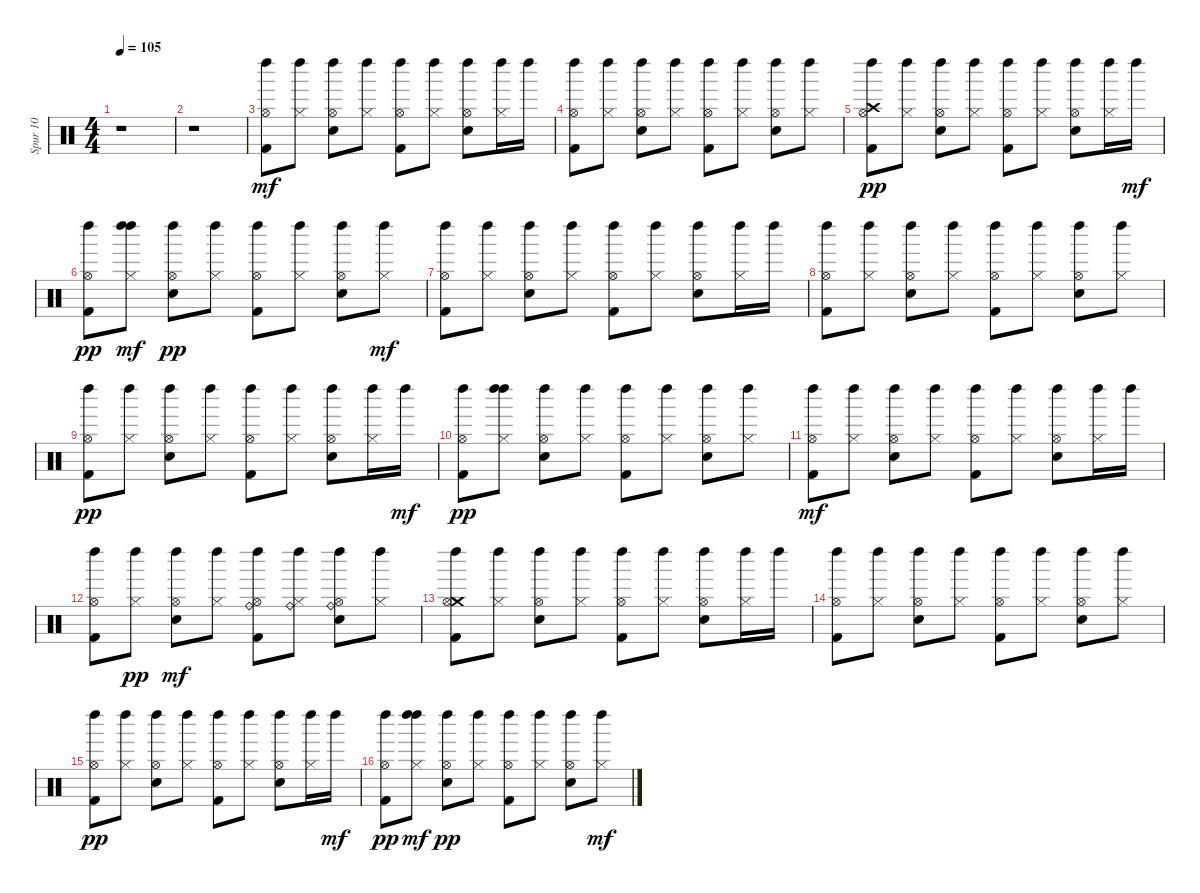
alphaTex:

\track ("Spur 10" "Spur 10") {instrument percussion}
\staff {score}
\articulation defaults
\ts (4 4)
\tempo 105
\clef neutral
\ks c
r.1{dy mf} |
r.1 |
("Hi-Hat (open)" "Kick (hit) 2" "Left Maraca (hit)").8 ("Hi-Hat (closed)" "Left Maraca (hit)").8 ("Hi-Hat (open)" "Snare (hit) 2" "Left Maraca (hit)").8 ("Hi-Hat (closed)" "Left Maraca (hit)").8 ("Hi-Hat (open)" "Kick (hit) 2" "Left Maraca (hit)").8 ("Hi-Hat (closed)" "Left Maraca (hit)").8 ("Hi-Hat (open)" "Snare (hit) 2" "Left Maraca (hit)").8 ("Hi-Hat (closed)" "Left Maraca (hit)").16 "Left Maraca (hit)".16 |
("Hi-Hat (open)" "Kick (hit) 2" "Left Maraca (hit)").8 ("Hi-Hat (closed)" "Left Maraca (hit)").8 ("Hi-Hat (open)" "Snare (hit) 2" "Left Maraca (hit)").8 ("Hi-Hat (closed)" "Left Maraca (hit)").8 ("Hi-Hat (open)" "Kick (hit) 2" "Left Maraca (hit)").8 ("Hi-Hat (closed)" "Left Maraca (hit)").8 ("Hi-Hat (open)" "Snare (hit) 2" "Left Maraca (hit)").8 ("Hi-Hat (closed)" "Left Maraca (hit)").8 |
("Left Maraca (hit)" "Crash high (hit)" "Hi-Hat (open)" "Kick (hit) 2").8{dy pp volume 16 balance 8} ("Left Maraca (hit)" "Hi-Hat (closed)").8 ("Left Maraca (hit)" "Hi-Hat (open)" "Snare (hit) 2").8 ("Left Maraca (hit)" "Hi-Hat (closed)").8 ("Left Maraca (hit)" "Hi-Hat (open)" "Kick (hit) 2").8 ("Left Maraca (hit)" "Hi-Hat (closed)").8 ("Left Maraca (hit)" "Hi-Hat (open)" "Snare (hit) 2").8 ("Left Maraca (hit)" "Hi-Hat (closed)").16 "Left Maraca (hit)".16{dy mf} |
("Left Maraca (hit)" "Hi-Hat (open)" "Kick (hit) 2").8{dy pp} ("Left Maraca (hit)" "Hi-Hat (closed)" "Left Maraca (hit)").8{dy mf} ("Left Maraca (hit)" "Hi-Hat (open)" "Snare (hit) 2").8{dy pp} ("Left Maraca (hit)" "Hi-Hat (closed)").8 ("Left Maraca (hit)" "Hi-Hat (open)" "Kick (hit) 2").8 ("Left Maraca (hit)" "Hi-Hat (closed)").8 ("Left Maraca (hit)" "Hi-Hat (open)" "Snare (hit) 2").8 ("Hi-Hat (closed)" "Left Maraca (hit)").8{dy mf} |
("Hi-Hat (open)" "Kick (hit) 2" "Left Maraca (hit)").8 ("Hi-Hat (closed)" "Left Maraca (hit)").8 ("Hi-Hat (open)" "Snare (hit) 2" "Left Maraca (hit)").8 ("Hi-Hat (closed)" "Left Maraca (hit)").8 ("Hi-Hat (open)" "Kick (hit) 2" "Left Maraca (hit)").8 ("Hi-Hat (closed)" "Left Maraca (hit)").8 ("Hi-Hat (open)" "Snare (hit) 2" "Left Maraca (hit)").8 ("Hi-Hat (closed)" "Left Maraca (hit)").16 "Left Maraca (hit)".16 |
("Hi-Hat (open)" "Kick (hit) 2" "Left Maraca (hit)").8 ("Hi-Hat (closed)" "Left Maraca (hit)").8 ("Hi-Hat (open)" "Snare (hit) 2" "Left Maraca (hit)").8 ("Hi-Hat (closed)" "Left Maraca (hit)").8 ("Hi-Hat (open)" "Kick (hit) 2" "Left Maraca (hit)").8 ("Hi-Hat (closed)" "Left Maraca (hit)").8 ("Hi-Hat (open)" "Snare (hit) 2" "Left Maraca (hit)").8 ("Hi-Hat (closed)" "Left Maraca (hit)").8 |
("Left Maraca (hit)" "Kick (hit) 2" "Hi-Hat (open)").8{dy pp} ("Left Maraca (hit)" "Hi-Hat (closed)").8 ("Left Maraca (hit)" "Snare (hit) 2" "Hi-Hat (open)").8 ("Left Maraca (hit)" "Hi-Hat (closed)").8 ("Left Maraca (hit)" "Kick (hit) 2" "Hi-Hat (open)").8 ("Left Maraca (hit)" "Hi-Hat (closed)").8 ("Left Maraca (hit)" "Snare (hit) 2" "Hi-Hat (open)").8 ("Left Maraca (hit)" "Hi-Hat (closed)").16 "Left Maraca (hit)".16{dy mf} |
("Left Maraca (hit)" "Kick (hit) 2" "Hi-Hat (open)").8{dy pp} ("Left Maraca (hit)" "Left Maraca (hit)" "Hi-Hat (closed)").8 ("Left Maraca (hit)" "Snare (hit) 2" "Hi-Hat (open)").8 ("Left Maraca (hit)" "Hi-Hat (closed)").8 ("Left Maraca (hit)" "Kick (hit) 2" "Hi-Hat (open)").8 ("Left Maraca (hit)" "Hi-Hat (closed)").8 ("Left Maraca (hit)" "Snare (hit) 2" "Hi-Hat (open)").8 ("Left Maraca (hit)" "Hi-Hat (closed)").8 |
("Kick (hit) 2" "Hi-Hat (open)" "Left Maraca (hit)").8{dy mf} ("Hi-Hat (closed)" "Left Maraca (hit)").8 ("Snare (hit) 2" "Hi-Hat (open)" "Left Maraca (hit)").8 ("Hi-Hat (closed)" "Left Maraca (hit)").8 ("Kick (hit) 2" "Hi-Hat (open)" "Left Maraca (hit)").8 ("Hi-Hat (closed)" "Left Maraca (hit)").8 ("Snare (hit) 2" "Hi-Hat (open)" "Left Maraca (hit)").8 ("Hi-Hat (closed)" "Left Maraca (hit)").16 "Left Maraca (hit)".16 |
("Kick (hit) 2" "Hi-Hat (open)" "Left Maraca (hit)").8 ("Left Maraca (hit)" "Hi-Hat (closed)").8{dy pp} ("Snare (hit) 2" "Hi-Hat (open)" "Left Maraca (hit)").8{dy mf} ("Hi-Hat (closed)" "Left Maraca (hit)").8 ("Kick (hit) 2" "Hi-Hat (open)" "Left Maraca (hit)" "Ride (bell)").8 ("Hi-Hat (closed)" "Left Maraca (hit)" "Ride (bell)").8 ("Snare (hit) 2" "Hi-Hat (open)" "Left Maraca (hit)" "Ride (bell)").8 ("Hi-Hat (closed)" "Left Maraca (hit)").8 |
("Kick (hit) 2" "Crash medium (hit)" "Hi-Hat (open)" "Left Maraca (hit)").8 ("Hi-Hat (closed)" "Left Maraca (hit)").8 ("Snare (hit) 2" "Hi-Hat (open)" "Left Maraca (hit)").8 ("Hi-Hat (closed)" "Left Maraca (hit)").8 ("Kick (hit) 2" "Hi-Hat (open)" "Left Maraca (hit)").8 ("Hi-Hat (closed)" "Left Maraca (hit)").8 ("Snare (hit) 2" "Hi-Hat (open)" "Left Maraca (hit)").8 ("Hi-Hat (closed)" "Left Maraca (hit)").16 "Left Maraca (hit)".16 |
("Kick (hit) 2" "Hi-Hat (open)" "Left Maraca (hit)").8 ("Hi-Hat (closed)" "Left Maraca (hit)").8 ("Snare (hit) 2" "Hi-Hat (open)" "Left Maraca (hit)").8 ("Hi-Hat (closed)" "Left Maraca (hit)").8 ("Kick (hit) 2" "Hi-Hat (open)" "Left Maraca (hit)").8 ("Hi-Hat (closed)" "Left Maraca (hit)").8 ("Snare (hit) 2" "Hi-Hat (open)" "Left Maraca (hit)").8 ("Hi-Hat (closed)" "Left Maraca (hit)").8 |
("Left Maraca (hit)" "Hi-Hat (open)" "Kick (hit) 2").8{dy pp} ("Left Maraca (hit)" "Hi-Hat (closed)").8 ("Left Maraca (hit)" "Hi-Hat (open)" "Snare (hit) 2").8 ("Left Maraca (hit)" "Hi-Hat (closed)").8 ("Left Maraca (hit)" "Hi-Hat (open)" "Kick (hit) 2").8 ("Left Maraca (hit)" "Hi-Hat (closed)").8 ("Left Maraca (hit)" "Hi-Hat (open)" "Snare (hit) 2").8 ("Left Maraca (hit)" "Hi-Hat (closed)").16 "Left Maraca (hit)".16{dy mf} |
("Left Maraca (hit)" "Hi-Hat (open)" "Kick (hit) 2").8{dy pp} ("Left Maraca (hit)" "Hi-Hat (closed)" "Left Maraca (hit)").8{dy mf} ("Left Maraca (hit)" "Hi-Hat (open)" "Snare (hit) 2").8{dy pp} ("Left Maraca (hit)" "Hi-Hat (closed)").8 ("Left Maraca (hit)" "Hi-Hat (open)" "Kick (hit) 2").8 ("Left Maraca (hit)" "Hi-Hat (closed)").8 ("Left Maraca (hit)" "Hi-Hat (open)" "Snare (hit) 2").8 ("Hi-Hat (closed)" "Left Maraca (hit)").8{dy mf}
